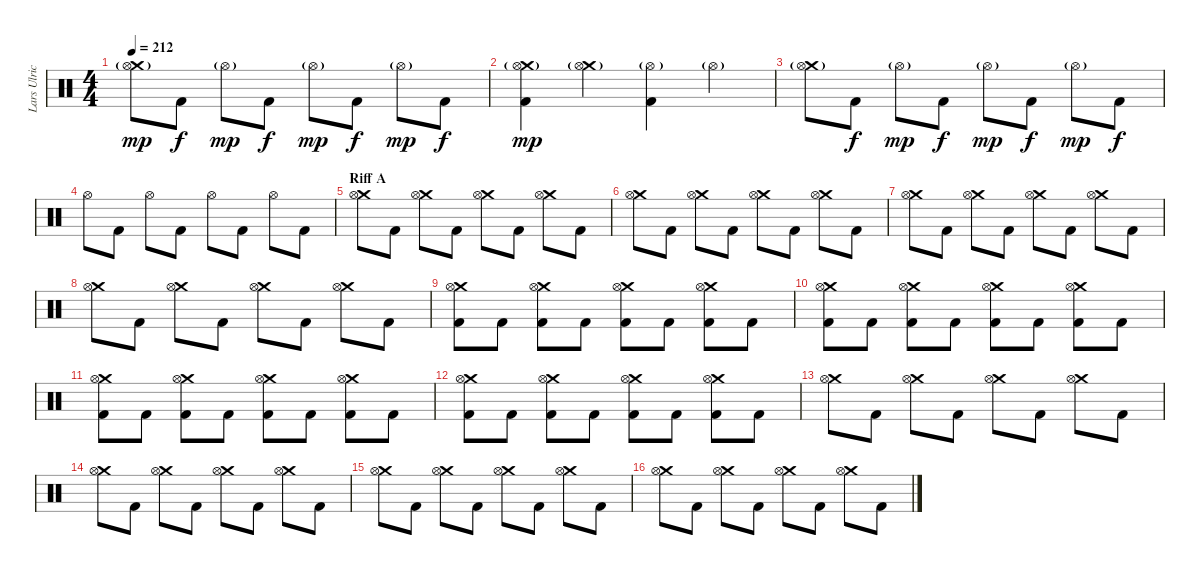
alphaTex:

\track ("Lars Ulrich" "Lars Ulric") {instrument percussion}
\staff {score}
\articulation defaults
\ts (4 4)
\tempo 212
\clef neutral
\ks c
("Crash medium (hit)" "Hi-Hat (open)"{g}).8{dy mp} "Kick (hit) 2".8{dy f} "Hi-Hat (open)"{g}.8{dy mp} "Kick (hit) 2".8{dy f} "Hi-Hat (open)"{g}.8{dy mp} "Kick (hit) 2".8{dy f} "Hi-Hat (open)"{g}.8{dy mp} "Kick (hit) 2".8{dy f} |
("Crash medium (hit)" "Hi-Hat (open)"{g} "Kick (hit) 2").4{dy mp} ("Crash medium (hit)" "Hi-Hat (open)"{g}).4 ("Hi-Hat (open)"{g} "Kick (hit) 2").4 "Hi-Hat (open)"{g}.4 |
("Crash medium (hit)" "Hi-Hat (open)"{g}).8 "Kick (hit) 2".8{dy f} "Hi-Hat (open)"{g}.8{dy mp} "Kick (hit) 2".8{dy f} "Hi-Hat (open)"{g}.8{dy mp} "Kick (hit) 2".8{dy f} "Hi-Hat (open)"{g}.8{dy mp} "Kick (hit) 2".8{dy f} |
"Hi-Hat (open)".8 "Kick (hit) 2".8 "Hi-Hat (open)".8 "Kick (hit) 2".8 "Hi-Hat (open)".8 "Kick (hit) 2".8 "Hi-Hat (open)".8 "Kick (hit) 2".8 |
\section ("" "Riff A")
("Crash medium (hit)" "Hi-Hat (open)").8 "Kick (hit) 2".8 ("Crash medium (hit)" "Hi-Hat (open)").8 "Kick (hit) 2".8 ("Crash medium (hit)" "Hi-Hat (open)").8 "Kick (hit) 2".8 ("Crash medium (hit)" "Hi-Hat (open)").8 "Kick (hit) 2".8 |
("Crash medium (hit)" "Hi-Hat (open)").8 "Kick (hit) 2".8 ("Crash medium (hit)" "Hi-Hat (open)").8 "Kick (hit) 2".8 ("Crash medium (hit)" "Hi-Hat (open)").8 "Kick (hit) 2".8 ("Crash medium (hit)" "Hi-Hat (open)").8 "Kick (hit) 2".8 |
("Crash medium (hit)" "Hi-Hat (open)").8 "Kick (hit) 2".8 ("Crash medium (hit)" "Hi-Hat (open)").8 "Kick (hit) 2".8 ("Crash medium (hit)" "Hi-Hat (open)").8 "Kick (hit) 2".8 ("Crash medium (hit)" "Hi-Hat (open)").8 "Kick (hit) 2".8 |
("Crash medium (hit)" "Hi-Hat (open)").8 "Kick (hit) 2".8 ("Crash medium (hit)" "Hi-Hat (open)").8 "Kick (hit) 2".8 ("Crash medium (hit)" "Hi-Hat (open)").8 "Kick (hit) 2".8 ("Crash medium (hit)" "Hi-Hat (open)").8 "Kick (hit) 2".8 |
("Crash medium (hit)" "Hi-Hat (open)" "Kick (hit) 2").8 "Kick (hit) 2".8 ("Crash medium (hit)" "Hi-Hat (open)" "Kick (hit) 2").8 "Kick (hit) 2".8 ("Crash medium (hit)" "Hi-Hat (open)" "Kick (hit) 2").8 "Kick (hit) 2".8 ("Crash medium (hit)" "Hi-Hat (open)" "Kick (hit) 2").8 "Kick (hit) 2".8 |
("Crash medium (hit)" "Hi-Hat (open)" "Kick (hit) 2").8 "Kick (hit) 2".8 ("Crash medium (hit)" "Hi-Hat (open)" "Kick (hit) 2").8 "Kick (hit) 2".8 ("Crash medium (hit)" "Hi-Hat (open)" "Kick (hit) 2").8 "Kick (hit) 2".8 ("Crash medium (hit)" "Hi-Hat (open)" "Kick (hit) 2").8 "Kick (hit) 2".8 |
("Crash medium (hit)" "Hi-Hat (open)" "Kick (hit) 2").8 "Kick (hit) 2".8 ("Crash medium (hit)" "Hi-Hat (open)" "Kick (hit) 2").8 "Kick (hit) 2".8 ("Crash medium (hit)" "Hi-Hat (open)" "Kick (hit) 2").8 "Kick (hit) 2".8 ("Crash medium (hit)" "Hi-Hat (open)" "Kick (hit) 2").8 "Kick (hit) 2".8 |
("Crash medium (hit)" "Hi-Hat (open)" "Kick (hit) 2").8 "Kick (hit) 2".8 ("Crash medium (hit)" "Hi-Hat (open)" "Kick (hit) 2").8 "Kick (hit) 2".8 ("Crash medium (hit)" "Hi-Hat (open)" "Kick (hit) 2").8 "Kick (hit) 2".8 ("Crash medium (hit)" "Hi-Hat (open)" "Kick (hit) 2").8 "Kick (hit) 2".8 |
("Crash medium (hit)" "Hi-Hat (open)").8 "Kick (hit) 2".8 ("Crash medium (hit)" "Hi-Hat (open)").8 "Kick (hit) 2".8 ("Crash medium (hit)" "Hi-Hat (open)").8 "Kick (hit) 2".8 ("Crash medium (hit)" "Hi-Hat (open)").8 "Kick (hit) 2".8 |
("Crash medium (hit)" "Hi-Hat (open)").8 "Kick (hit) 2".8 ("Crash medium (hit)" "Hi-Hat (open)").8 "Kick (hit) 2".8 ("Crash medium (hit)" "Hi-Hat (open)").8 "Kick (hit) 2".8 ("Crash medium (hit)" "Hi-Hat (open)").8 "Kick (hit) 2".8 |
("Crash medium (hit)" "Hi-Hat (open)").8 "Kick (hit) 2".8 ("Crash medium (hit)" "Hi-Hat (open)").8 "Kick (hit) 2".8 ("Crash medium (hit)" "Hi-Hat (open)").8 "Kick (hit) 2".8 ("Crash medium (hit)" "Hi-Hat (open)").8 "Kick (hit) 2".8 |
("Crash medium (hit)" "Hi-Hat (open)").8 "Kick (hit) 2".8 ("Crash medium (hit)" "Hi-Hat (open)").8 "Kick (hit) 2".8 ("Crash medium (hit)" "Hi-Hat (open)").8 "Kick (hit) 2".8 ("Crash medium (hit)" "Hi-Hat (open)").8 "Kick (hit) 2".8
